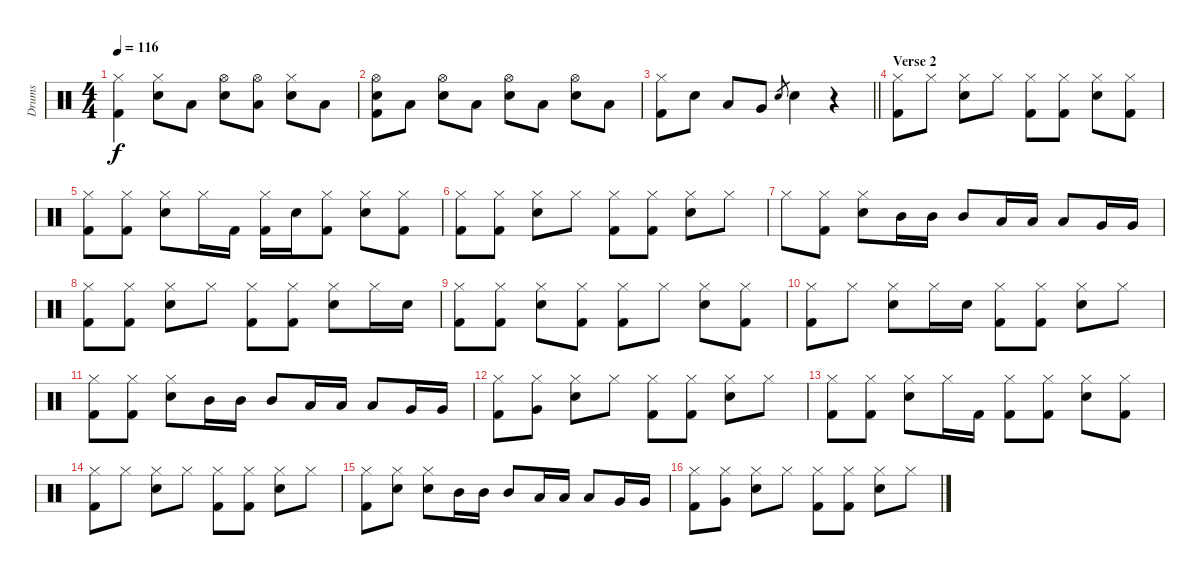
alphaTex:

\track ("Drums" "Drums") {instrument percussion}
\staff {score}
\articulation defaults
\ts (4 4)
\tempo 116
\clef neutral
\ks c
("Hi-Hat (closed)" "Kick (hit) 2").4{dy f} ("Hi-Hat (closed)" "Snare (hit) 2").8 "Low Tom (hit)".8 ("Hi-Hat (open)" "Snare (hit) 2").8 ("Hi-Hat (open)" "Low Tom (hit)").8 ("Hi-Hat (closed)" "Snare (hit) 2").8 "Low Tom (hit)".8 |
("Hi-Hat (open)" "Snare (hit) 2" "Kick (hit) 2").8 "Low Tom (hit)".8 ("Hi-Hat (open)" "Snare (hit) 2").8 "Low Tom (hit)".8 ("Hi-Hat (open)" "Snare (hit) 2").8 "Low Tom (hit)".8 ("Hi-Hat (open)" "Snare (hit) 2").8 "Low Tom (hit)".8 |
\barLineRight lightlight
("Hi-Hat (closed)" "Kick (hit) 2").8 "Snare (hit) 2".8 "Low Tom (hit)".8 "Very Low Tom (hit)".8 "Snare (hit) 2".8{gr} "Snare (hit) 2".4 r.4 |
\section ("" "Verse 2")
("Hi-Hat (closed)" "Kick (hit) 2").8 "Hi-Hat (closed)".8 ("Hi-Hat (closed)" "Snare (hit) 2").8 "Hi-Hat (closed)".8 ("Hi-Hat (closed)" "Kick (hit) 2").8 ("Hi-Hat (closed)" "Kick (hit) 2").8 ("Hi-Hat (closed)" "Snare (hit) 2").8 ("Hi-Hat (closed)" "Kick (hit) 2").8 |
("Hi-Hat (closed)" "Kick (hit) 2").8 ("Hi-Hat (closed)" "Kick (hit) 2").8 ("Hi-Hat (closed)" "Snare (hit) 2").8 "Hi-Hat (closed)".16 "Kick (hit) 2".16 ("Hi-Hat (closed)" "Kick (hit) 2").16 "Snare (hit) 2".16 ("Hi-Hat (closed)" "Kick (hit) 2").8 ("Hi-Hat (closed)" "Snare (hit) 2").8 ("Hi-Hat (closed)" "Kick (hit) 2").8 |
("Hi-Hat (closed)" "Kick (hit) 2").8 ("Hi-Hat (closed)" "Kick (hit) 2").8 ("Hi-Hat (closed)" "Snare (hit) 2").8 "Hi-Hat (closed)".8 ("Hi-Hat (closed)" "Kick (hit) 2").8 ("Hi-Hat (closed)" "Kick (hit) 2").8 ("Hi-Hat (closed)" "Snare (hit) 2").8 "Hi-Hat (closed)".8 |
"Hi-Hat (closed)".8 ("Hi-Hat (closed)" "Kick (hit) 2").8 ("Hi-Hat (closed)" "Snare (hit) 2").8 "Mid Tom (hit)".16 "Mid Tom (hit)".16 "Mid Tom (hit)".8 "Low Tom (hit)".16 "Low Tom (hit)".16 "Low Tom (hit)".8 "Very Low Tom (hit)".16 "Very Low Tom (hit)".16 |
("Hi-Hat (closed)" "Kick (hit) 2").8 ("Hi-Hat (closed)" "Kick (hit) 2").8 ("Hi-Hat (closed)" "Snare (hit) 2").8 "Hi-Hat (closed)".8 ("Hi-Hat (closed)" "Kick (hit) 2").8 ("Hi-Hat (closed)" "Kick (hit) 2").8 ("Hi-Hat (closed)" "Snare (hit) 2").8 "Hi-Hat (closed)".16 "Snare (hit) 2".16 |
("Hi-Hat (closed)" "Kick (hit) 2").8 ("Hi-Hat (closed)" "Kick (hit) 2").8 ("Hi-Hat (closed)" "Snare (hit) 2").8 ("Hi-Hat (closed)" "Kick (hit) 2").8 ("Hi-Hat (closed)" "Kick (hit) 2").8 "Hi-Hat (closed)".8 ("Hi-Hat (closed)" "Snare (hit) 2").8 ("Hi-Hat (closed)" "Kick (hit) 2").8 |
("Hi-Hat (closed)" "Kick (hit) 2").8 "Hi-Hat (closed)".8 ("Hi-Hat (closed)" "Snare (hit) 2").8 "Hi-Hat (closed)".16 "Snare (hit) 2".16 ("Hi-Hat (closed)" "Kick (hit) 2").8 ("Hi-Hat (closed)" "Kick (hit) 2").8 ("Hi-Hat (closed)" "Snare (hit) 2").8 "Hi-Hat (closed)".8 |
("Hi-Hat (closed)" "Kick (hit) 2").8 ("Hi-Hat (closed)" "Kick (hit) 2").8 ("Hi-Hat (closed)" "Snare (hit) 2").8 "Mid Tom (hit)".16 "Mid Tom (hit)".16 "Mid Tom (hit)".8 "Low Tom (hit)".16 "Low Tom (hit)".16 "Low Tom (hit)".8 "Very Low Tom (hit)".16 "Very Low Tom (hit)".16 |
("Hi-Hat (closed)" "Kick (hit) 2").8 ("Hi-Hat (closed)" "Very Low Tom (hit)").8 ("Hi-Hat (closed)" "Snare (hit) 2").8 "Hi-Hat (closed)".8 ("Hi-Hat (closed)" "Kick (hit) 2").8 ("Hi-Hat (closed)" "Kick (hit) 2").8 ("Hi-Hat (closed)" "Snare (hit) 2").8 "Hi-Hat (closed)".8 |
("Hi-Hat (closed)" "Kick (hit) 2").8 ("Hi-Hat (closed)" "Kick (hit) 2").8 ("Hi-Hat (closed)" "Snare (hit) 2").8 "Hi-Hat (closed)".16 "Kick (hit) 2".16 ("Hi-Hat (closed)" "Kick (hit) 2").8 ("Hi-Hat (closed)" "Kick (hit) 2").8 ("Hi-Hat (closed)" "Snare (hit) 2").8 ("Hi-Hat (closed)" "Kick (hit) 2").8 |
("Hi-Hat (closed)" "Kick (hit) 2").8 "Hi-Hat (closed)".8 ("Hi-Hat (closed)" "Snare (hit) 2").8 "Hi-Hat (closed)".8 ("Hi-Hat (closed)" "Kick (hit) 2").8 ("Hi-Hat (closed)" "Kick (hit) 2").8 ("Hi-Hat (closed)" "Snare (hit) 2").8 "Hi-Hat (closed)".8 |
("Hi-Hat (closed)" "Kick (hit) 2").8 ("Hi-Hat (closed)" "Snare (hit) 2").8 ("Hi-Hat (closed)" "Snare (hit) 2").8 "Mid Tom (hit)".16 "Mid Tom (hit)".16 "Mid Tom (hit)".8 "Low Tom (hit)".16 "Low Tom (hit)".16 "Low Tom (hit)".8 "Very Low Tom (hit)".16 "Very Low Tom (hit)".16 |
("Hi-Hat (closed)" "Kick (hit) 2").8 ("Hi-Hat (closed)" "Very Low Tom (hit)").8 ("Hi-Hat (closed)" "Snare (hit) 2").8 "Hi-Hat (closed)".8 ("Hi-Hat (closed)" "Kick (hit) 2").8 ("Hi-Hat (closed)" "Kick (hit) 2").8 ("Hi-Hat (closed)" "Snare (hit) 2").8 "Hi-Hat (closed)".8
